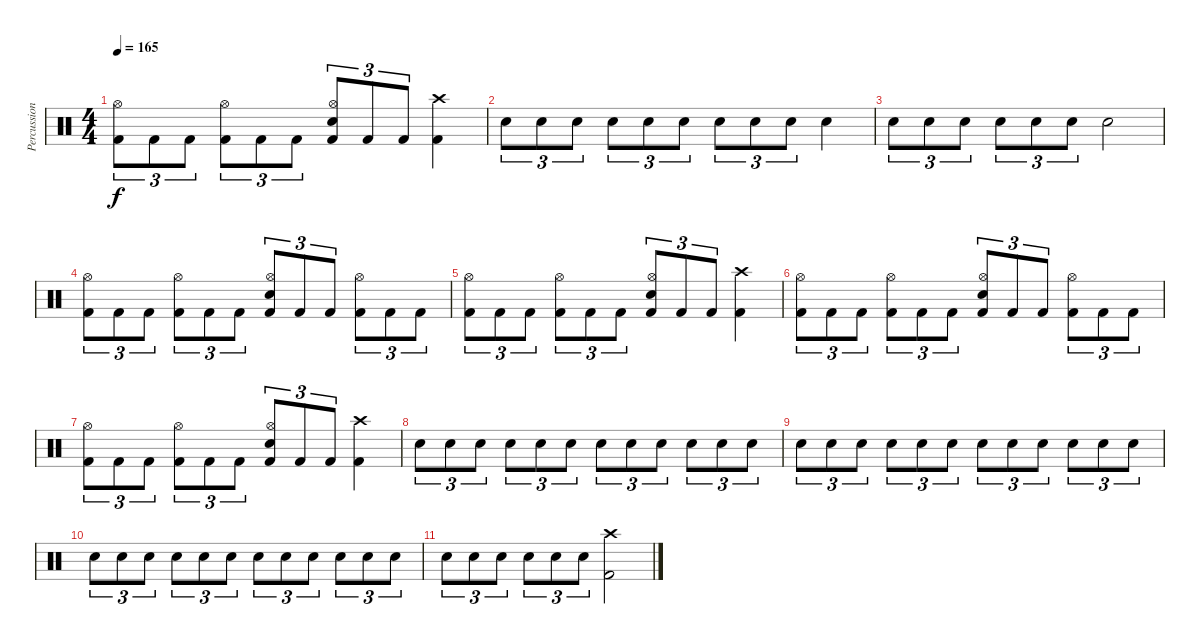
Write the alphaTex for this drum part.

\track ("Percussion" "Percussion") {instrument percussion}
\staff {score}
\articulation defaults
\ts (4 4)
\tempo 165
\clef neutral
\ks c
("Kick (hit) 2" "Hi-Hat (open)").8{tu (3 2) dy f} "Kick (hit) 2".8{tu (3 2)} "Kick (hit) 2".8{tu (3 2)} ("Kick (hit) 2" "Hi-Hat (open)").8{tu (3 2)} "Kick (hit) 2".8{tu (3 2)} "Kick (hit) 2".8{tu (3 2)} ("Kick (hit) 2" "Hi-Hat (open)" "Snare (hit) 2").8{tu (3 2)} "Kick (hit) 2".8{tu (3 2)} "Kick (hit) 2".8{tu (3 2)} ("Kick (hit) 2" "Crash high (hit)").4 |
"Snare (hit) 2".8{tu (3 2)} "Snare (hit) 2".8{tu (3 2)} "Snare (hit) 2".8{tu (3 2)} "Snare (hit) 2".8{tu (3 2)} "Snare (hit) 2".8{tu (3 2)} "Snare (hit) 2".8{tu (3 2)} "Snare (hit) 2".8{tu (3 2)} "Snare (hit) 2".8{tu (3 2)} "Snare (hit) 2".8{tu (3 2)} "Snare (hit) 2".4 |
"Snare (hit) 2".8{tu (3 2)} "Snare (hit) 2".8{tu (3 2)} "Snare (hit) 2".8{tu (3 2)} "Snare (hit) 2".8{tu (3 2)} "Snare (hit) 2".8{tu (3 2)} "Snare (hit) 2".8{tu (3 2)} "Snare (hit) 2".2 |
("Kick (hit) 2" "Hi-Hat (open)").8{tu (3 2)} "Kick (hit) 2".8{tu (3 2)} "Kick (hit) 2".8{tu (3 2)} ("Kick (hit) 2" "Hi-Hat (open)").8{tu (3 2)} "Kick (hit) 2".8{tu (3 2)} "Kick (hit) 2".8{tu (3 2)} ("Kick (hit) 2" "Hi-Hat (open)" "Snare (hit) 2").8{tu (3 2)} "Kick (hit) 2".8{tu (3 2)} "Kick (hit) 2".8{tu (3 2)} ("Kick (hit) 2" "Hi-Hat (open)").8{tu (3 2)} "Kick (hit) 2".8{tu (3 2)} "Kick (hit) 2".8{tu (3 2)} |
("Kick (hit) 2" "Hi-Hat (open)").8{tu (3 2)} "Kick (hit) 2".8{tu (3 2)} "Kick (hit) 2".8{tu (3 2)} ("Kick (hit) 2" "Hi-Hat (open)").8{tu (3 2)} "Kick (hit) 2".8{tu (3 2)} "Kick (hit) 2".8{tu (3 2)} ("Kick (hit) 2" "Hi-Hat (open)" "Snare (hit) 2").8{tu (3 2)} "Kick (hit) 2".8{tu (3 2)} "Kick (hit) 2".8{tu (3 2)} ("Kick (hit) 2" "Crash high (hit)").4 |
("Kick (hit) 2" "Hi-Hat (open)").8{tu (3 2)} "Kick (hit) 2".8{tu (3 2)} "Kick (hit) 2".8{tu (3 2)} ("Kick (hit) 2" "Hi-Hat (open)").8{tu (3 2)} "Kick (hit) 2".8{tu (3 2)} "Kick (hit) 2".8{tu (3 2)} ("Kick (hit) 2" "Hi-Hat (open)" "Snare (hit) 2").8{tu (3 2)} "Kick (hit) 2".8{tu (3 2)} "Kick (hit) 2".8{tu (3 2)} ("Kick (hit) 2" "Hi-Hat (open)").8{tu (3 2)} "Kick (hit) 2".8{tu (3 2)} "Kick (hit) 2".8{tu (3 2)} |
("Kick (hit) 2" "Hi-Hat (open)").8{tu (3 2)} "Kick (hit) 2".8{tu (3 2)} "Kick (hit) 2".8{tu (3 2)} ("Kick (hit) 2" "Hi-Hat (open)").8{tu (3 2)} "Kick (hit) 2".8{tu (3 2)} "Kick (hit) 2".8{tu (3 2)} ("Kick (hit) 2" "Hi-Hat (open)" "Snare (hit) 2").8{tu (3 2)} "Kick (hit) 2".8{tu (3 2)} "Kick (hit) 2".8{tu (3 2)} ("Kick (hit) 2" "Crash high (hit)").4 |
"Snare (hit) 2".8{tu (3 2)} "Snare (hit) 2".8{tu (3 2)} "Snare (hit) 2".8{tu (3 2)} "Snare (hit) 2".8{tu (3 2)} "Snare (hit) 2".8{tu (3 2)} "Snare (hit) 2".8{tu (3 2)} "Snare (hit) 2".8{tu (3 2)} "Snare (hit) 2".8{tu (3 2)} "Snare (hit) 2".8{tu (3 2)} "Snare (hit) 2".8{tu (3 2)} "Snare (hit) 2".8{tu (3 2)} "Snare (hit) 2".8{tu (3 2)} |
"Snare (hit) 2".8{tu (3 2)} "Snare (hit) 2".8{tu (3 2)} "Snare (hit) 2".8{tu (3 2)} "Snare (hit) 2".8{tu (3 2)} "Snare (hit) 2".8{tu (3 2)} "Snare (hit) 2".8{tu (3 2)} "Snare (hit) 2".8{tu (3 2)} "Snare (hit) 2".8{tu (3 2)} "Snare (hit) 2".8{tu (3 2)} "Snare (hit) 2".8{tu (3 2)} "Snare (hit) 2".8{tu (3 2)} "Snare (hit) 2".8{tu (3 2)} |
"Snare (hit) 2".8{tu (3 2)} "Snare (hit) 2".8{tu (3 2)} "Snare (hit) 2".8{tu (3 2)} "Snare (hit) 2".8{tu (3 2)} "Snare (hit) 2".8{tu (3 2)} "Snare (hit) 2".8{tu (3 2)} "Snare (hit) 2".8{tu (3 2)} "Snare (hit) 2".8{tu (3 2)} "Snare (hit) 2".8{tu (3 2)} "Snare (hit) 2".8{tu (3 2)} "Snare (hit) 2".8{tu (3 2)} "Snare (hit) 2".8{tu (3 2)} |
"Snare (hit) 2".8{tu (3 2)} "Snare (hit) 2".8{tu (3 2)} "Snare (hit) 2".8{tu (3 2)} "Snare (hit) 2".8{tu (3 2)} "Snare (hit) 2".8{tu (3 2)} "Snare (hit) 2".8{tu (3 2)} ("Kick (hit) 2" "Crash high (hit)").2
